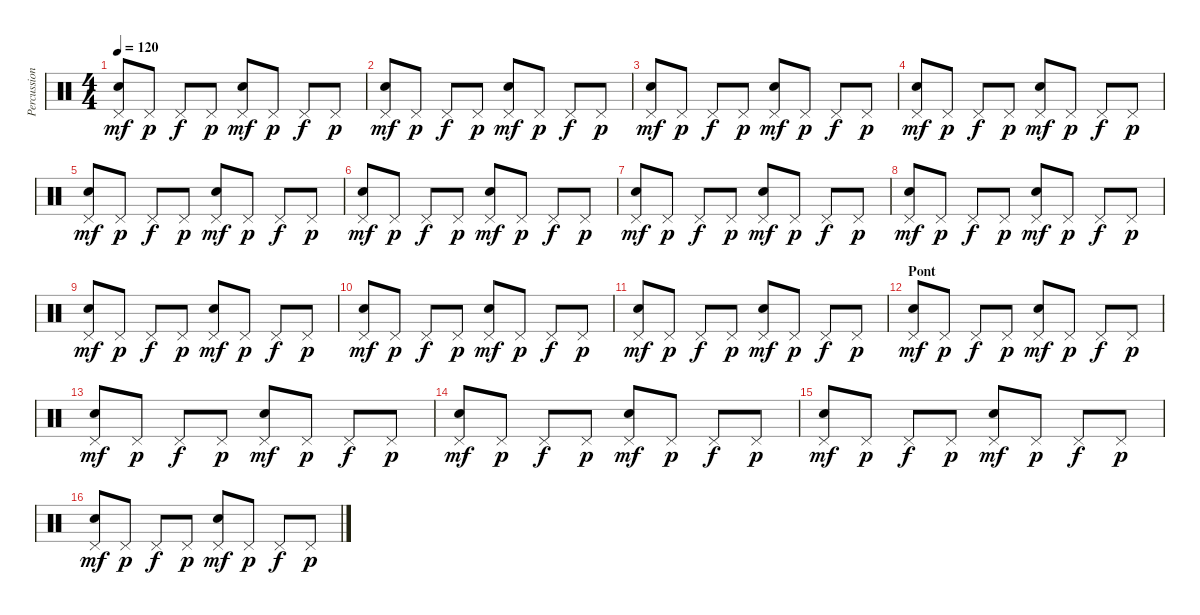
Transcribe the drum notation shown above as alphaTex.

\track ("Percussions" "Percussion") {instrument percussion}
\staff {score}
\articulation defaults
\ts (4 4)
\tempo 120
\clef neutral
\ks c
("Pedal Hi-Hat (hit)" "Hand Clap (hit)").8{dy mf} "Pedal Hi-Hat (hit)".8{dy p} "Pedal Hi-Hat (hit)".8{dy f} "Pedal Hi-Hat (hit)".8{dy p} ("Pedal Hi-Hat (hit)" "Hand Clap (hit)").8{dy mf} "Pedal Hi-Hat (hit)".8{dy p} "Pedal Hi-Hat (hit)".8{dy f} "Pedal Hi-Hat (hit)".8{dy p} |
("Pedal Hi-Hat (hit)" "Hand Clap (hit)").8{dy mf} "Pedal Hi-Hat (hit)".8{dy p} "Pedal Hi-Hat (hit)".8{dy f} "Pedal Hi-Hat (hit)".8{dy p} ("Pedal Hi-Hat (hit)" "Hand Clap (hit)").8{dy mf} "Pedal Hi-Hat (hit)".8{dy p} "Pedal Hi-Hat (hit)".8{dy f} "Pedal Hi-Hat (hit)".8{dy p} |
("Pedal Hi-Hat (hit)" "Hand Clap (hit)").8{dy mf} "Pedal Hi-Hat (hit)".8{dy p} "Pedal Hi-Hat (hit)".8{dy f} "Pedal Hi-Hat (hit)".8{dy p} ("Pedal Hi-Hat (hit)" "Hand Clap (hit)").8{dy mf} "Pedal Hi-Hat (hit)".8{dy p} "Pedal Hi-Hat (hit)".8{dy f} "Pedal Hi-Hat (hit)".8{dy p} |
("Pedal Hi-Hat (hit)" "Hand Clap (hit)").8{dy mf} "Pedal Hi-Hat (hit)".8{dy p} "Pedal Hi-Hat (hit)".8{dy f} "Pedal Hi-Hat (hit)".8{dy p} ("Pedal Hi-Hat (hit)" "Hand Clap (hit)").8{dy mf} "Pedal Hi-Hat (hit)".8{dy p} "Pedal Hi-Hat (hit)".8{dy f} "Pedal Hi-Hat (hit)".8{dy p} |
("Pedal Hi-Hat (hit)" "Hand Clap (hit)").8{dy mf} "Pedal Hi-Hat (hit)".8{dy p} "Pedal Hi-Hat (hit)".8{dy f} "Pedal Hi-Hat (hit)".8{dy p} ("Pedal Hi-Hat (hit)" "Hand Clap (hit)").8{dy mf} "Pedal Hi-Hat (hit)".8{dy p} "Pedal Hi-Hat (hit)".8{dy f} "Pedal Hi-Hat (hit)".8{dy p} |
("Pedal Hi-Hat (hit)" "Hand Clap (hit)").8{dy mf} "Pedal Hi-Hat (hit)".8{dy p} "Pedal Hi-Hat (hit)".8{dy f} "Pedal Hi-Hat (hit)".8{dy p} ("Pedal Hi-Hat (hit)" "Hand Clap (hit)").8{dy mf} "Pedal Hi-Hat (hit)".8{dy p} "Pedal Hi-Hat (hit)".8{dy f} "Pedal Hi-Hat (hit)".8{dy p} |
("Pedal Hi-Hat (hit)" "Hand Clap (hit)").8{dy mf} "Pedal Hi-Hat (hit)".8{dy p} "Pedal Hi-Hat (hit)".8{dy f} "Pedal Hi-Hat (hit)".8{dy p} ("Pedal Hi-Hat (hit)" "Hand Clap (hit)").8{dy mf} "Pedal Hi-Hat (hit)".8{dy p} "Pedal Hi-Hat (hit)".8{dy f} "Pedal Hi-Hat (hit)".8{dy p} |
("Pedal Hi-Hat (hit)" "Hand Clap (hit)").8{dy mf} "Pedal Hi-Hat (hit)".8{dy p} "Pedal Hi-Hat (hit)".8{dy f} "Pedal Hi-Hat (hit)".8{dy p} ("Pedal Hi-Hat (hit)" "Hand Clap (hit)").8{dy mf} "Pedal Hi-Hat (hit)".8{dy p} "Pedal Hi-Hat (hit)".8{dy f} "Pedal Hi-Hat (hit)".8{dy p} |
("Pedal Hi-Hat (hit)" "Hand Clap (hit)").8{dy mf} "Pedal Hi-Hat (hit)".8{dy p} "Pedal Hi-Hat (hit)".8{dy f} "Pedal Hi-Hat (hit)".8{dy p} ("Pedal Hi-Hat (hit)" "Hand Clap (hit)").8{dy mf} "Pedal Hi-Hat (hit)".8{dy p} "Pedal Hi-Hat (hit)".8{dy f} "Pedal Hi-Hat (hit)".8{dy p} |
("Pedal Hi-Hat (hit)" "Hand Clap (hit)").8{dy mf} "Pedal Hi-Hat (hit)".8{dy p} "Pedal Hi-Hat (hit)".8{dy f} "Pedal Hi-Hat (hit)".8{dy p} ("Pedal Hi-Hat (hit)" "Hand Clap (hit)").8{dy mf} "Pedal Hi-Hat (hit)".8{dy p} "Pedal Hi-Hat (hit)".8{dy f} "Pedal Hi-Hat (hit)".8{dy p} |
("Pedal Hi-Hat (hit)" "Hand Clap (hit)").8{dy mf} "Pedal Hi-Hat (hit)".8{dy p} "Pedal Hi-Hat (hit)".8{dy f} "Pedal Hi-Hat (hit)".8{dy p} ("Pedal Hi-Hat (hit)" "Hand Clap (hit)").8{dy mf} "Pedal Hi-Hat (hit)".8{dy p} "Pedal Hi-Hat (hit)".8{dy f} "Pedal Hi-Hat (hit)".8{dy p} |
\section ("" "Pont")
("Pedal Hi-Hat (hit)" "Hand Clap (hit)").8{dy mf} "Pedal Hi-Hat (hit)".8{dy p} "Pedal Hi-Hat (hit)".8{dy f} "Pedal Hi-Hat (hit)".8{dy p} ("Pedal Hi-Hat (hit)" "Hand Clap (hit)").8{dy mf} "Pedal Hi-Hat (hit)".8{dy p} "Pedal Hi-Hat (hit)".8{dy f} "Pedal Hi-Hat (hit)".8{dy p} |
("Pedal Hi-Hat (hit)" "Hand Clap (hit)").8{dy mf} "Pedal Hi-Hat (hit)".8{dy p} "Pedal Hi-Hat (hit)".8{dy f} "Pedal Hi-Hat (hit)".8{dy p} ("Pedal Hi-Hat (hit)" "Hand Clap (hit)").8{dy mf} "Pedal Hi-Hat (hit)".8{dy p} "Pedal Hi-Hat (hit)".8{dy f} "Pedal Hi-Hat (hit)".8{dy p} |
("Pedal Hi-Hat (hit)" "Hand Clap (hit)").8{dy mf} "Pedal Hi-Hat (hit)".8{dy p} "Pedal Hi-Hat (hit)".8{dy f} "Pedal Hi-Hat (hit)".8{dy p} ("Pedal Hi-Hat (hit)" "Hand Clap (hit)").8{dy mf} "Pedal Hi-Hat (hit)".8{dy p} "Pedal Hi-Hat (hit)".8{dy f} "Pedal Hi-Hat (hit)".8{dy p} |
("Pedal Hi-Hat (hit)" "Hand Clap (hit)").8{dy mf} "Pedal Hi-Hat (hit)".8{dy p} "Pedal Hi-Hat (hit)".8{dy f} "Pedal Hi-Hat (hit)".8{dy p} ("Pedal Hi-Hat (hit)" "Hand Clap (hit)").8{dy mf} "Pedal Hi-Hat (hit)".8{dy p} "Pedal Hi-Hat (hit)".8{dy f} "Pedal Hi-Hat (hit)".8{dy p} |
("Pedal Hi-Hat (hit)" "Hand Clap (hit)").8{dy mf} "Pedal Hi-Hat (hit)".8{dy p} "Pedal Hi-Hat (hit)".8{dy f} "Pedal Hi-Hat (hit)".8{dy p} ("Pedal Hi-Hat (hit)" "Hand Clap (hit)").8{dy mf} "Pedal Hi-Hat (hit)".8{dy p} "Pedal Hi-Hat (hit)".8{dy f} "Pedal Hi-Hat (hit)".8{dy p}
